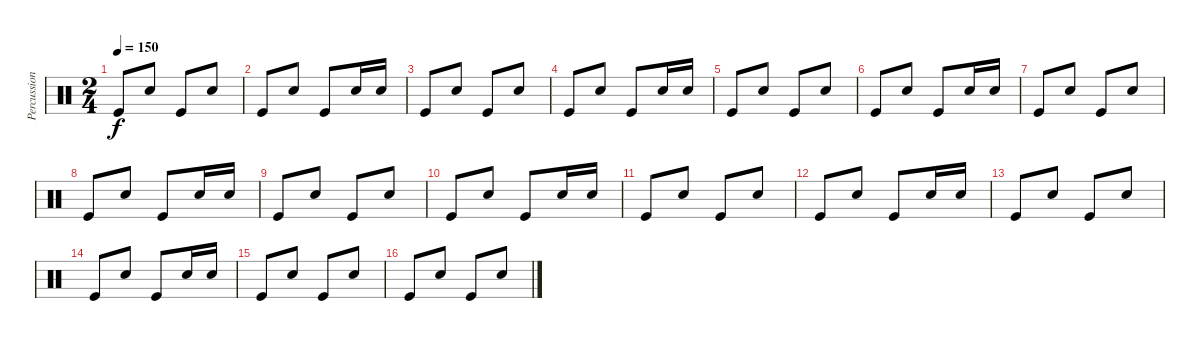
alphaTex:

\track ("Percussions" "Percussion") {instrument percussion}
\staff {score}
\articulation defaults
\ts (2 4)
\tempo 150
\clef neutral
\ks c "Kick (hit)".8{dy f} "Electric Snare (hit)".8 "Kick (hit)".8 "Electric Snare (hit)".8
|
"Kick (hit)".8 "Electric Snare (hit)".8 "Kick (hit)".8 "Electric Snare (hit)".16 "Electric Snare (hit)".16 |
"Kick (hit)".8 "Electric Snare (hit)".8 "Kick (hit)".8 "Electric Snare (hit)".8 |
"Kick (hit)".8 "Electric Snare (hit)".8 "Kick (hit)".8 "Electric Snare (hit)".16 "Electric Snare (hit)".16 |
"Kick (hit)".8 "Electric Snare (hit)".8 "Kick (hit)".8 "Electric Snare (hit)".8 |
"Kick (hit)".8 "Electric Snare (hit)".8 "Kick (hit)".8 "Electric Snare (hit)".16 "Electric Snare (hit)".16 |
"Kick (hit)".8 "Electric Snare (hit)".8 "Kick (hit)".8 "Electric Snare (hit)".8 |
"Kick (hit)".8 "Electric Snare (hit)".8 "Kick (hit)".8 "Electric Snare (hit)".16 "Electric Snare (hit)".16 |
"Kick (hit)".8 "Electric Snare (hit)".8 "Kick (hit)".8 "Electric Snare (hit)".8 |
"Kick (hit)".8 "Electric Snare (hit)".8 "Kick (hit)".8 "Electric Snare (hit)".16 "Electric Snare (hit)".16 |
"Kick (hit)".8 "Electric Snare (hit)".8 "Kick (hit)".8 "Electric Snare (hit)".8 |
"Kick (hit)".8 "Electric Snare (hit)".8 "Kick (hit)".8 "Electric Snare (hit)".16 "Electric Snare (hit)".16 |
"Kick (hit)".8 "Electric Snare (hit)".8 "Kick (hit)".8 "Electric Snare (hit)".8 |
"Kick (hit)".8 "Electric Snare (hit)".8 "Kick (hit)".8 "Electric Snare (hit)".16 "Electric Snare (hit)".16 |
"Kick (hit)".8 "Electric Snare (hit)".8 "Kick (hit)".8 "Electric Snare (hit)".8 |
"Kick (hit)".8 "Electric Snare (hit)".8 "Kick (hit)".8 "Electric Snare (hit)".8
